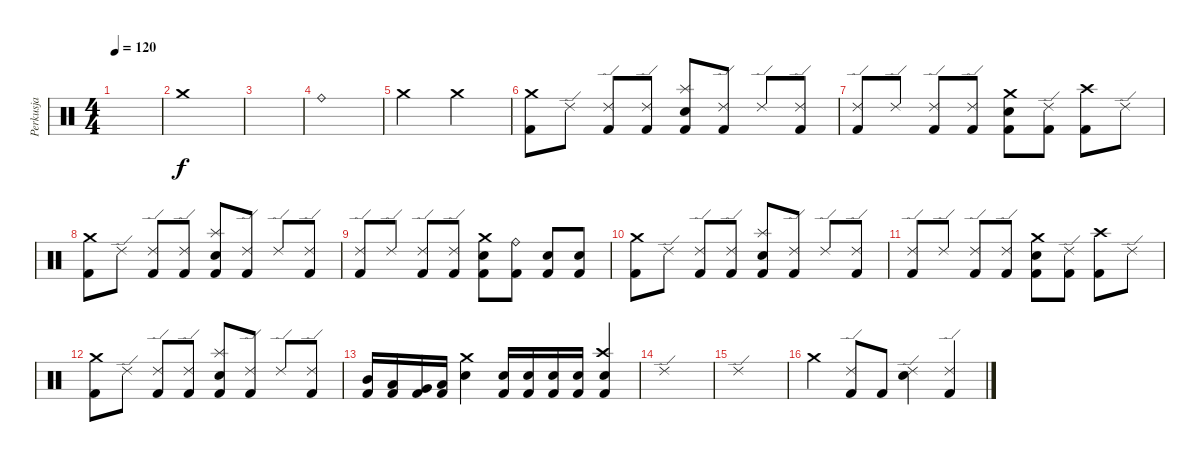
\track ("Perkusja" "Perkusja") {instrument percussion}
\staff {score}
\articulation defaults
\ts (4 4)
\tempo 120
\clef neutral
\ks c
|
"Crash medium (hit)".1 |
|
"Ride (bell)".1 |
"Crash medium (hit)".2 "Crash medium (hit)".2 |
("Crash medium (hit)" "Kick (hit) 2").8{volume 16} "Ride (edge) 2".8 ("Ride (edge) 2" "Kick (hit) 2").8 ("Ride (edge) 2" "Kick (hit) 2").8 ("Splash (hit)" "Kick (hit) 2" "Electric Snare (hit)").8 ("Ride (edge) 2" "Kick (hit) 2").8 "Ride (edge) 2".8 ("Ride (edge) 2" "Kick (hit) 2").8 |
("Ride (edge) 2" "Kick (hit) 2").8 "Ride (edge) 2".8 ("Ride (edge) 2" "Kick (hit) 2").8 ("Ride (edge) 2" "Kick (hit) 2").8 ("Crash medium (hit)" "Kick (hit) 2" "Electric Snare (hit)").8 ("Ride (edge) 2" "Kick (hit) 2").8 ("Crash high (hit)" "Kick (hit) 2").8 "Ride (edge) 2".8 |
("Crash medium (hit)" "Kick (hit) 2").8 "Ride (edge) 2".8 ("Ride (edge) 2" "Kick (hit) 2").8 ("Ride (edge) 2" "Kick (hit) 2").8 ("Splash (hit)" "Kick (hit) 2" "Electric Snare (hit)").8 ("Ride (edge) 2" "Kick (hit) 2").8 "Ride (edge) 2".8 ("Ride (edge) 2" "Kick (hit) 2").8 |
("Ride (edge) 2" "Kick (hit) 2").8 "Ride (edge) 2".8 ("Ride (edge) 2" "Kick (hit) 2").8 ("Ride (edge) 2" "Kick (hit) 2").8 ("Crash medium (hit)" "Kick (hit) 2" "Electric Snare (hit)").8 ("Ride (bell)" "Kick (hit) 2").8 ("Electric Snare (hit)" "Kick (hit) 2").8 ("Electric Snare (hit)" "Kick (hit) 2").8 |
("Crash medium (hit)" "Kick (hit) 2").8{volume 16} "Ride (edge) 2".8 ("Ride (edge) 2" "Kick (hit) 2").8 ("Ride (edge) 2" "Kick (hit) 2").8 ("Splash (hit)" "Kick (hit) 2" "Electric Snare (hit)").8 ("Ride (edge) 2" "Kick (hit) 2").8 "Ride (edge) 2".8 ("Ride (edge) 2" "Kick (hit) 2").8 |
("Ride (edge) 2" "Kick (hit) 2").8 "Ride (edge) 2".8 ("Ride (edge) 2" "Kick (hit) 2").8 ("Ride (edge) 2" "Kick (hit) 2").8 ("Crash medium (hit)" "Kick (hit) 2" "Electric Snare (hit)").8 ("Ride (edge) 2" "Kick (hit) 2").8 ("Crash high (hit)" "Kick (hit) 2").8 "Ride (edge) 2".8 |
("Crash medium (hit)" "Kick (hit) 2").8 "Ride (edge) 2".8 ("Ride (edge) 2" "Kick (hit) 2").8 ("Ride (edge) 2" "Kick (hit) 2").8 ("Splash (hit)" "Kick (hit) 2" "Electric Snare (hit)").8 ("Ride (edge) 2" "Kick (hit) 2").8 "Ride (edge) 2".8 ("Ride (edge) 2" "Kick (hit) 2").8 |
("Mid Tom (hit)" "Kick (hit) 2").16 ("Low Tom (hit)" "Kick (hit) 2").16 ("Very Low Tom (hit)" "Kick (hit) 2").16 ("Low Floor Tom (hit)" "Kick (hit) 2").16 ("Crash medium (hit)" "Electric Snare (hit)").4 ("Electric Snare (hit)" "Kick (hit) 2").16 ("Electric Snare (hit)" "Kick (hit) 2").16 ("Electric Snare (hit)" "Kick (hit) 2").16 ("Electric Snare (hit)" "Kick (hit) 2").16 ("Crash high (hit)" "Snare (hit) 2" "Kick (hit) 2").4 |
"Ride (edge) 2".1 |
"Ride (edge) 2".1 |
"Crash medium (hit)".4 ("Ride (edge) 2" "Kick (hit) 2").8 "Kick (hit) 2".8 ("Ride (edge) 2" "Electric Snare (hit)").4 ("Ride (edge) 2" "Kick (hit) 2").4
